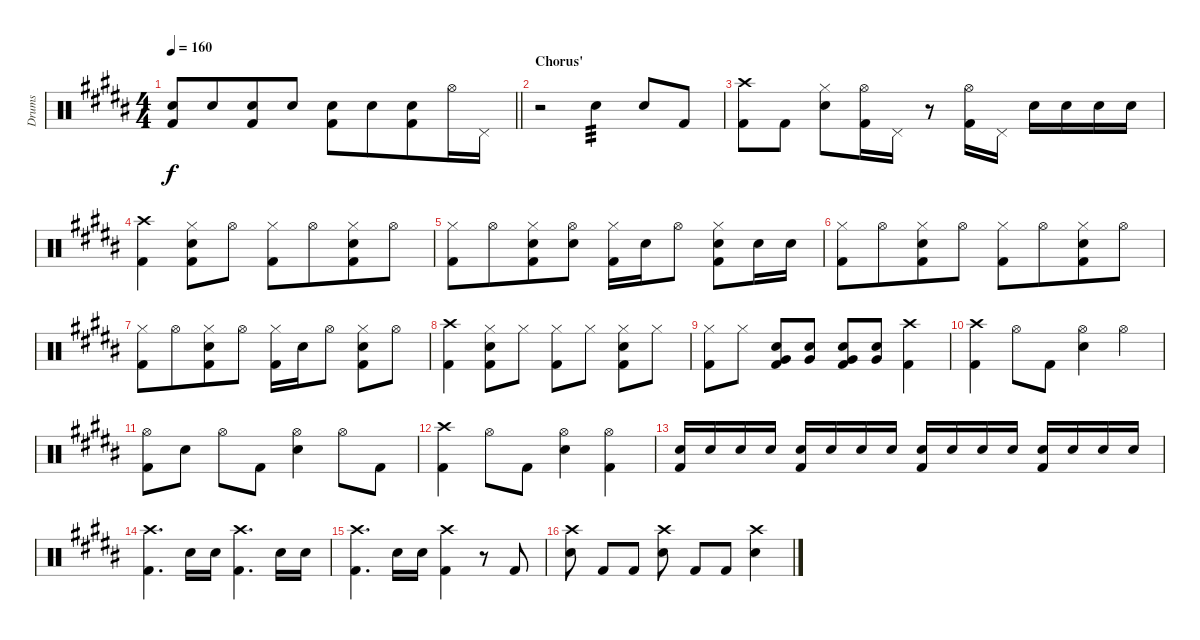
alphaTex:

\track ("Drums" "Drums") {instrument percussion}
\staff {score}
\articulation defaults
\ts (4 4)
\tempo 160
\clef neutral
\barLineRight lightlight
\ks b
("Snare (hit) 2" "Kick (hit) 2").8{dy f} "Snare (hit) 2".8{beam merge} ("Snare (hit) 2" "Kick (hit) 2").8 "Snare (hit) 2".8 ("Snare (hit) 2" "Kick (hit) 2").8 "Snare (hit) 2".8{beam merge} ("Snare (hit) 2" "Kick (hit) 2").8 "Hi-Hat (open)".16 "Pedal Hi-Hat (hit)".16 |
\section ("" "Chorus'")
r.2 "Snare (hit) 2".4{tp 3} "Snare (hit) 2".8 "Kick (hit) 2".8 |
("Kick (hit) 2" "Crash high (hit)").8 "Kick (hit) 2".8 ("Hi-Hat (closed)" "Snare (hit) 2").8 ("Hi-Hat (open)" "Kick (hit) 2").16 "Pedal Hi-Hat (hit)".16 r.8 ("Hi-Hat (open)" "Kick (hit) 2").16 "Pedal Hi-Hat (hit)".16 "Snare (hit) 2".16 "Snare (hit) 2".16 "Snare (hit) 2".16 "Snare (hit) 2".16 |
("Kick (hit) 2" "Crash high (hit)").4 ("Hi-Hat (closed)" "Snare (hit) 2" "Kick (hit) 2").8 "Hi-Hat (open)".8 ("Hi-Hat (closed)" "Kick (hit) 2").8 "Hi-Hat (open)".8{beam merge} ("Hi-Hat (closed)" "Snare (hit) 2" "Kick (hit) 2").8 "Hi-Hat (open)".8 |
("Hi-Hat (closed)" "Kick (hit) 2").8 "Hi-Hat (open)".8{beam merge} ("Hi-Hat (closed)" "Snare (hit) 2" "Kick (hit) 2").8 ("Hi-Hat (open)" "Snare (hit) 2").8 ("Hi-Hat (closed)" "Kick (hit) 2").16 "Snare (hit) 2".16 "Hi-Hat (open)".8 ("Hi-Hat (closed)" "Snare (hit) 2" "Kick (hit) 2").8 "Snare (hit) 2".16 "Snare (hit) 2".16 |
("Hi-Hat (closed)" "Kick (hit) 2").8 "Hi-Hat (open)".8{beam merge} ("Hi-Hat (closed)" "Snare (hit) 2" "Kick (hit) 2").8 "Hi-Hat (open)".8 ("Hi-Hat (closed)" "Kick (hit) 2").8 "Hi-Hat (open)".8{beam merge} ("Hi-Hat (closed)" "Snare (hit) 2" "Kick (hit) 2").8 "Hi-Hat (open)".8 |
("Hi-Hat (closed)" "Kick (hit) 2").8 "Hi-Hat (open)".8{beam merge} ("Hi-Hat (closed)" "Snare (hit) 2" "Kick (hit) 2").8 "Hi-Hat (open)".8 ("Hi-Hat (closed)" "Kick (hit) 2").16 "Snare (hit) 2".16 "Hi-Hat (open)".8 ("Hi-Hat (closed)" "Snare (hit) 2" "Kick (hit) 2").8 "Hi-Hat (open)".8 |
("Kick (hit) 2" "Crash high (hit)").4 ("Hi-Hat (closed)" "Snare (hit) 2" "Kick (hit) 2").8 "Hi-Hat (closed)".8 ("Hi-Hat (closed)" "Kick (hit) 2").8 "Hi-Hat (closed)".8 ("Hi-Hat (closed)" "Snare (hit) 2" "Kick (hit) 2").8 "Hi-Hat (closed)".8 |
("Hi-Hat (closed)" "Kick (hit) 2").8 "Hi-Hat (closed)".8 ("Very Low Tom (hit)" "Snare (hit) 2" "Kick (hit) 2").8 ("Very Low Tom (hit)" "Snare (hit) 2").8 ("Very Low Tom (hit)" "Snare (hit) 2" "Kick (hit) 2").8 ("Very Low Tom (hit)" "Snare (hit) 2").8 ("Kick (hit) 2" "Crash high (hit)").4 |
("Kick (hit) 2" "Crash high (hit)").4 "Hi-Hat (open)".8 "Kick (hit) 2".8 ("Hi-Hat (open)" "Snare (hit) 2").4 "Hi-Hat (open)".4 |
("Hi-Hat (open)" "Kick (hit) 2").8 "Snare (hit) 2".8 "Hi-Hat (open)".8 "Kick (hit) 2".8 ("Hi-Hat (open)" "Snare (hit) 2").4 "Hi-Hat (open)".8 "Kick (hit) 2".8 |
("Kick (hit) 2" "Crash high (hit)").4 "Hi-Hat (open)".8 "Kick (hit) 2".8 ("Hi-Hat (open)" "Snare (hit) 2").4 ("Hi-Hat (open)" "Kick (hit) 2").4 |
("Snare (hit) 2" "Kick (hit) 2").16 "Snare (hit) 2".16 "Snare (hit) 2".16 "Snare (hit) 2".16 ("Snare (hit) 2" "Kick (hit) 2").16 "Snare (hit) 2".16 "Snare (hit) 2".16 "Snare (hit) 2".16 ("Snare (hit) 2" "Kick (hit) 2").16 "Snare (hit) 2".16 "Snare (hit) 2".16 "Snare (hit) 2".16 ("Snare (hit) 2" "Kick (hit) 2").16 "Snare (hit) 2".16 "Snare (hit) 2".16 "Snare (hit) 2".16 |
("Kick (hit) 2" "Crash high (hit)").4{d} "Snare (hit) 2".16 "Snare (hit) 2".16 ("Kick (hit) 2" "Crash high (hit)").4{d} "Snare (hit) 2".16 "Snare (hit) 2".16 |
("Kick (hit) 2" "Crash high (hit)").4{d} "Snare (hit) 2".16 "Snare (hit) 2".16 ("Kick (hit) 2" "Crash high (hit)").4 r.8 "Kick (hit) 2".8 |
("Snare (hit) 2" "Crash high (hit)").8{beam split} "Kick (hit) 2".8{beam merge} "Kick (hit) 2".8{beam split} ("Snare (hit) 2" "Crash high (hit)").8 "Kick (hit) 2".8 "Kick (hit) 2".8 ("Snare (hit) 2" "Crash high (hit)").4
